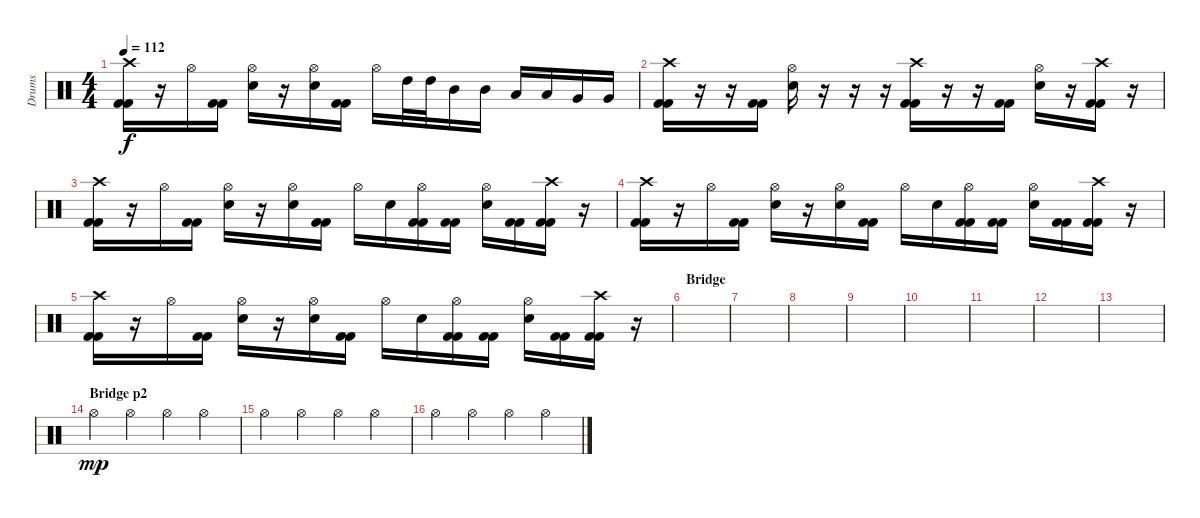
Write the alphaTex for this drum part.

\track ("Drums" "Drums") {instrument percussion}
\staff {score}
\articulation defaults
\ts (4 4)
\tempo 112
\clef neutral
\ks c
("Crash high (hit)" "Kick (hit) 2" "Kick (hit) 2").16{dy f} r.16 "Hi-Hat (open)".16 ("Kick (hit) 2" "Kick (hit) 2").16 ("Hi-Hat (open)" "Snare (hit) 2").16 r.16 ("Hi-Hat (open)" "Snare (hit) 2").16 ("Kick (hit) 2" "Kick (hit) 2").16 "Hi-Hat (open)".16 "High Tom (hit)".32 "High Tom (hit)".32 "Mid Tom (hit)".16 "Mid Tom (hit)".16 "Low Tom (hit)".16 "Low Tom (hit)".16 "Very Low Tom (hit)".16 "Very Low Tom (hit)".16 |
("Crash high (hit)" "Kick (hit) 2" "Kick (hit) 2").16 r.16 r.16 ("Kick (hit) 2" "Kick (hit) 2").16 ("Hi-Hat (open)" "Snare (hit) 2").16 r.16 r.16 r.16 ("Crash high (hit)" "Kick (hit) 2" "Kick (hit) 2").16 r.16 r.16 ("Kick (hit) 2" "Kick (hit) 2").16 ("Hi-Hat (open)" "Snare (hit) 2").16 r.16 ("Crash high (hit)" "Kick (hit) 2" "Kick (hit) 2").16 r.16 |
("Crash high (hit)" "Kick (hit) 2" "Kick (hit) 2").16 r.16 "Hi-Hat (open)".16 ("Kick (hit) 2" "Kick (hit) 2").16 ("Hi-Hat (open)" "Snare (hit) 2").16 r.16 ("Hi-Hat (open)" "Snare (hit) 2").16 ("Kick (hit) 2" "Kick (hit) 2").16 "Hi-Hat (open)".16 "Snare (hit) 2".16 ("Hi-Hat (open)" "Kick (hit) 2" "Kick (hit) 2").16 ("Kick (hit) 2" "Kick (hit) 2").16 ("Hi-Hat (open)" "Snare (hit) 2").16 ("Kick (hit) 2" "Kick (hit) 2").16 ("Crash high (hit)" "Kick (hit) 2" "Kick (hit) 2").16 r.16 |
("Crash high (hit)" "Kick (hit) 2" "Kick (hit) 2").16 r.16 "Hi-Hat (open)".16 ("Kick (hit) 2" "Kick (hit) 2").16 ("Hi-Hat (open)" "Snare (hit) 2").16 r.16 ("Hi-Hat (open)" "Snare (hit) 2").16 ("Kick (hit) 2" "Kick (hit) 2").16 "Hi-Hat (open)".16 "Snare (hit) 2".16 ("Hi-Hat (open)" "Kick (hit) 2" "Kick (hit) 2").16 ("Kick (hit) 2" "Kick (hit) 2").16 ("Hi-Hat (open)" "Snare (hit) 2").16 ("Kick (hit) 2" "Kick (hit) 2").16 ("Crash high (hit)" "Kick (hit) 2" "Kick (hit) 2").16 r.16 |
("Crash high (hit)" "Kick (hit) 2" "Kick (hit) 2").16 r.16 "Hi-Hat (open)".16 ("Kick (hit) 2" "Kick (hit) 2").16 ("Hi-Hat (open)" "Snare (hit) 2").16 r.16 ("Hi-Hat (open)" "Snare (hit) 2").16 ("Kick (hit) 2" "Kick (hit) 2").16 "Hi-Hat (open)".16 "Snare (hit) 2".16 ("Hi-Hat (open)" "Kick (hit) 2" "Kick (hit) 2").16 ("Kick (hit) 2" "Kick (hit) 2").16 ("Hi-Hat (open)" "Snare (hit) 2").16 ("Kick (hit) 2" "Kick (hit) 2").16 ("Crash high (hit)" "Kick (hit) 2" "Kick (hit) 2").16 r.16 |
\section ("" "Bridge")
|
|
|
|
|
|
|
|
\section ("" "Bridge p2")
"Hi-Hat (open)".4{dy mp} "Hi-Hat (open)".4 "Hi-Hat (open)".4 "Hi-Hat (open)".4 |
"Hi-Hat (open)".4 "Hi-Hat (open)".4 "Hi-Hat (open)".4 "Hi-Hat (open)".4 |
"Hi-Hat (open)".4 "Hi-Hat (open)".4 "Hi-Hat (open)".4 "Hi-Hat (open)".4
